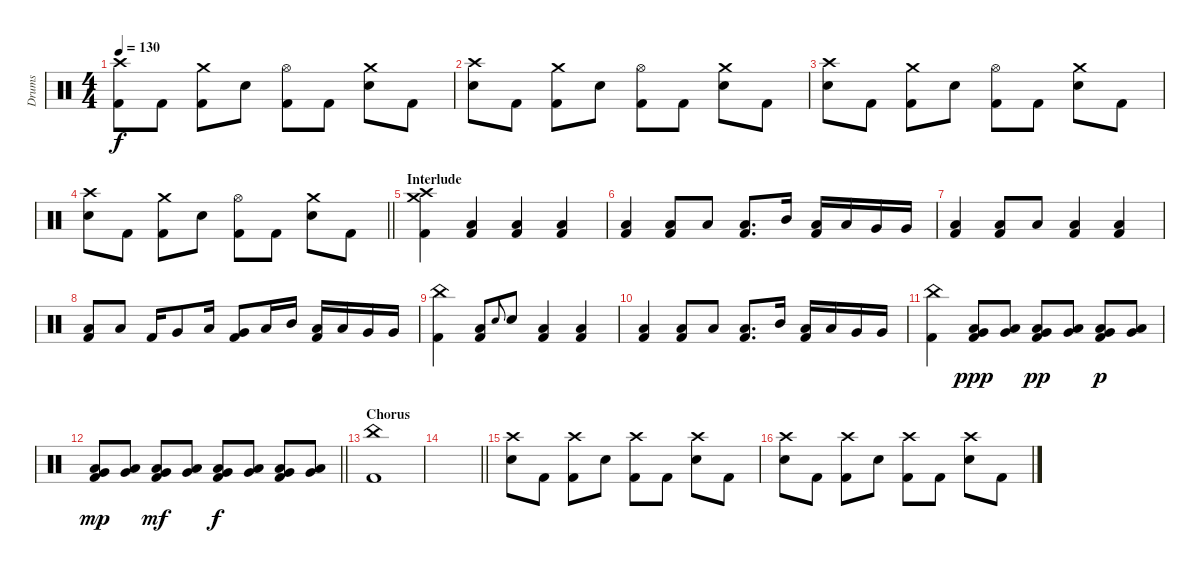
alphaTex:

\track ("Drums" "Drums") {instrument percussion}
\staff {score}
\articulation defaults
\ts (4 4)
\tempo 130
\clef neutral
\ks c
("Crash high (hit)" "Kick (hit) 2").8{dy f} "Kick (hit) 2".8 ("Crash medium (hit)" "Kick (hit) 2").8 "Electric Snare (hit)".8 ("Hi-Hat (open)" "Kick (hit) 2").8 "Kick (hit) 2".8 ("Crash medium (hit)" "Electric Snare (hit)").8 "Kick (hit) 2".8 |
("Crash high (hit)" "Electric Snare (hit)").8 "Kick (hit) 2".8 ("Crash medium (hit)" "Kick (hit) 2").8 "Electric Snare (hit)".8 ("Hi-Hat (open)" "Kick (hit) 2").8 "Kick (hit) 2".8 ("Crash medium (hit)" "Electric Snare (hit)").8 "Kick (hit) 2".8 |
("Crash high (hit)" "Electric Snare (hit)").8 "Kick (hit) 2".8 ("Crash medium (hit)" "Kick (hit) 2").8 "Electric Snare (hit)".8 ("Hi-Hat (open)" "Kick (hit) 2").8 "Kick (hit) 2".8 ("Crash medium (hit)" "Electric Snare (hit)").8 "Kick (hit) 2".8 |
\barLineRight lightlight
("Crash high (hit)" "Electric Snare (hit)").8 "Kick (hit) 2".8 ("Crash medium (hit)" "Kick (hit) 2").8 "Electric Snare (hit)".8 ("Hi-Hat (open)" "Kick (hit) 2").8 "Kick (hit) 2".8 ("Crash medium (hit)" "Electric Snare (hit)").8 "Kick (hit) 2".8 |
\section ("" "Interlude")
("Crash high (hit)" "Crash medium (hit)" "Kick (hit) 2").4 ("Low Floor Tom (hit)" "Kick (hit) 2").4 ("Low Floor Tom (hit)" "Kick (hit) 2").4 ("Low Floor Tom (hit)" "Kick (hit) 2").4 |
("Low Floor Tom (hit)" "Kick (hit) 2").4 ("Low Floor Tom (hit)" "Kick (hit) 2").8 "Low Tom (hit)".8 ("Low Floor Tom (hit)" "Kick (hit) 2").8{d} "Mid Tom (hit)".16 ("Low Tom (hit)" "Kick (hit) 2").16 "Low Tom (hit)".16 "Very Low Tom (hit)".16 "Very Low Tom (hit)".16 |
("Low Floor Tom (hit)" "Kick (hit) 2").4 ("Low Floor Tom (hit)" "Kick (hit) 2").8 "Low Tom (hit)".8 ("Low Floor Tom (hit)" "Kick (hit) 2").4 ("Low Floor Tom (hit)" "Kick (hit) 2").4 |
("Low Floor Tom (hit)" "Kick (hit) 2").8 "Low Tom (hit)".8 "Kick (hit) 2".16 "Very Low Tom (hit)".8 "Low Tom (hit)".16 ("Very Low Tom (hit)" "Kick (hit) 2").8 "Low Tom (hit)".16 "Mid Tom (hit)".16 ("Low Tom (hit)" "Kick (hit) 2").16 "Low Tom (hit)".16 "Very Low Tom (hit)".16 "Very Low Tom (hit)".16 |
("China (hit)" "Kick (hit) 2").4 ("Low Floor Tom (hit)" "Kick (hit) 2").8 "Electric Snare (hit)".8{gr onbeat} "Electric Snare (hit)".8 ("Low Floor Tom (hit)" "Kick (hit) 2").4 ("Low Floor Tom (hit)" "Kick (hit) 2").4 |
("Low Floor Tom (hit)" "Kick (hit) 2").4 ("Low Floor Tom (hit)" "Kick (hit) 2").8 "Low Tom (hit)".8 ("Low Floor Tom (hit)" "Kick (hit) 2").8{d} "Mid Tom (hit)".16 ("Low Tom (hit)" "Kick (hit) 2").16 "Low Tom (hit)".16 "Very Low Tom (hit)".16 "Very Low Tom (hit)".16 |
("China (hit)" "Kick (hit) 2").4 ("Low Tom (hit)" "Very Low Tom (hit)" "Kick (hit) 2").8{dy ppp} ("Low Tom (hit)" "Very Low Tom (hit)").8 ("Low Tom (hit)" "Very Low Tom (hit)" "Kick (hit) 2").8{dy pp} ("Low Tom (hit)" "Very Low Tom (hit)").8 ("Low Tom (hit)" "Very Low Tom (hit)" "Kick (hit) 2").8{dy p} ("Low Tom (hit)" "Very Low Tom (hit)").8 |
\barLineRight lightlight
("Low Tom (hit)" "Very Low Tom (hit)" "Kick (hit) 2").8{dy mp} ("Low Tom (hit)" "Very Low Tom (hit)").8 ("Low Tom (hit)" "Very Low Tom (hit)" "Kick (hit) 2").8{dy mf} ("Low Tom (hit)" "Very Low Tom (hit)").8 ("Low Tom (hit)" "Very Low Tom (hit)" "Kick (hit) 2").8{dy f} ("Low Tom (hit)" "Very Low Tom (hit)").8 ("Low Tom (hit)" "Very Low Tom (hit)" "Kick (hit) 2").8 ("Low Tom (hit)" "Very Low Tom (hit)").8 |
\section ("" "Chorus")
("China (hit)" "Kick (hit) 2").1 |
\barLineRight lightlight
|
("Crash high (hit)" "Electric Snare (hit)").8 "Kick (hit) 2".8 ("Crash high (hit)" "Kick (hit) 2").8 "Electric Snare (hit)".8 ("Crash high (hit)" "Kick (hit) 2").8 "Kick (hit) 2".8 ("Crash high (hit)" "Electric Snare (hit)").8 "Kick (hit) 2".8 |
("Crash high (hit)" "Electric Snare (hit)").8 "Kick (hit) 2".8 ("Crash high (hit)" "Kick (hit) 2").8 "Electric Snare (hit)".8 ("Crash high (hit)" "Kick (hit) 2").8 "Kick (hit) 2".8 ("Crash high (hit)" "Electric Snare (hit)").8 "Kick (hit) 2".8
